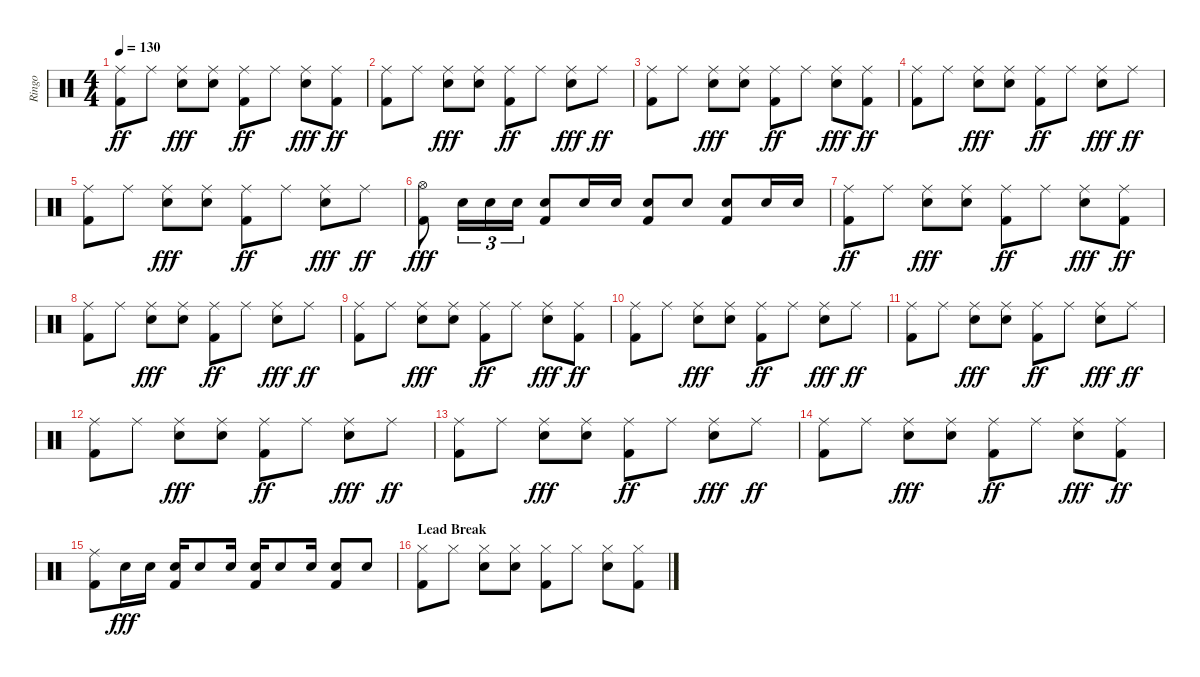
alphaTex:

\track ("Ringo" "Ringo") {instrument percussion}
\staff {score}
\articulation defaults
\ts (4 4)
\tempo 130
\clef neutral
\ks c
("Ride (middle)" "Kick (hit) 2").8{dy ff} "Ride (middle)".8 ("Ride (middle)" "Electric Snare (hit)").8{dy fff} ("Ride (middle)" "Electric Snare (hit)").8 ("Ride (middle)" "Kick (hit) 2").8{dy ff} "Ride (middle)".8 ("Ride (middle)" "Electric Snare (hit)").8{dy fff} ("Ride (middle)" "Kick (hit) 2").8{dy ff} |
("Ride (middle)" "Kick (hit) 2").8 "Ride (middle)".8 ("Ride (middle)" "Electric Snare (hit)").8{dy fff} ("Ride (middle)" "Electric Snare (hit)").8 ("Ride (middle)" "Kick (hit) 2").8{dy ff} "Ride (middle)".8 ("Ride (middle)" "Electric Snare (hit)").8{dy fff} "Ride (middle)".8{dy ff} |
("Ride (middle)" "Kick (hit) 2").8 "Ride (middle)".8 ("Ride (middle)" "Electric Snare (hit)").8{dy fff} ("Ride (middle)" "Electric Snare (hit)").8 ("Ride (middle)" "Kick (hit) 2").8{dy ff} "Ride (middle)".8 ("Ride (middle)" "Electric Snare (hit)").8{dy fff} ("Ride (middle)" "Kick (hit) 2").8{dy ff} |
("Ride (middle)" "Kick (hit) 2").8 "Ride (middle)".8 ("Ride (middle)" "Electric Snare (hit)").8{dy fff} ("Ride (middle)" "Electric Snare (hit)").8 ("Ride (middle)" "Kick (hit) 2").8{dy ff} "Ride (middle)".8 ("Ride (middle)" "Electric Snare (hit)").8{dy fff} "Ride (middle)".8{dy ff} |
("Ride (middle)" "Kick (hit) 2").8 "Ride (middle)".8 ("Ride (middle)" "Electric Snare (hit)").8{dy fff} ("Ride (middle)" "Electric Snare (hit)").8 ("Ride (middle)" "Kick (hit) 2").8{dy ff} "Ride (middle)".8 ("Ride (middle)" "Electric Snare (hit)").8{dy fff} "Ride (middle)".8{dy ff} |
("Hi-Hat (open)" "Kick (hit) 2").8{dy fff} "Electric Snare (hit)".16{tu (3 2)} "Electric Snare (hit)".16{tu (3 2)} "Electric Snare (hit)".16{tu (3 2)} ("Electric Snare (hit)" "Kick (hit) 2").8 "Electric Snare (hit)".16 "Electric Snare (hit)".16 ("Electric Snare (hit)" "Kick (hit) 2").8 "Electric Snare (hit)".8 ("Electric Snare (hit)" "Kick (hit) 2").8 "Electric Snare (hit)".16 "Electric Snare (hit)".16 |
("Ride (middle)" "Kick (hit) 2").8{dy ff} "Ride (middle)".8 ("Ride (middle)" "Electric Snare (hit)").8{dy fff} ("Ride (middle)" "Electric Snare (hit)").8 ("Ride (middle)" "Kick (hit) 2").8{dy ff} "Ride (middle)".8 ("Ride (middle)" "Electric Snare (hit)").8{dy fff} ("Ride (middle)" "Kick (hit) 2").8{dy ff} |
("Ride (middle)" "Kick (hit) 2").8 "Ride (middle)".8 ("Ride (middle)" "Electric Snare (hit)").8{dy fff} ("Ride (middle)" "Electric Snare (hit)").8 ("Ride (middle)" "Kick (hit) 2").8{dy ff} "Ride (middle)".8 ("Ride (middle)" "Electric Snare (hit)").8{dy fff} "Ride (middle)".8{dy ff} |
("Ride (middle)" "Kick (hit) 2").8 "Ride (middle)".8 ("Ride (middle)" "Electric Snare (hit)").8{dy fff} ("Ride (middle)" "Electric Snare (hit)").8 ("Ride (middle)" "Kick (hit) 2").8{dy ff} "Ride (middle)".8 ("Ride (middle)" "Electric Snare (hit)").8{dy fff} ("Ride (middle)" "Kick (hit) 2").8{dy ff} |
("Ride (middle)" "Kick (hit) 2").8 "Ride (middle)".8 ("Ride (middle)" "Electric Snare (hit)").8{dy fff} ("Ride (middle)" "Electric Snare (hit)").8 ("Ride (middle)" "Kick (hit) 2").8{dy ff} "Ride (middle)".8 ("Ride (middle)" "Electric Snare (hit)").8{dy fff} "Ride (middle)".8{dy ff} |
("Ride (middle)" "Kick (hit) 2").8 "Ride (middle)".8 ("Ride (middle)" "Electric Snare (hit)").8{dy fff} ("Ride (middle)" "Electric Snare (hit)").8 ("Ride (middle)" "Kick (hit) 2").8{dy ff} "Ride (middle)".8 ("Ride (middle)" "Electric Snare (hit)").8{dy fff} "Ride (middle)".8{dy ff} |
("Ride (middle)" "Kick (hit) 2").8 "Ride (middle)".8 ("Ride (middle)" "Electric Snare (hit)").8{dy fff} ("Ride (middle)" "Electric Snare (hit)").8 ("Ride (middle)" "Kick (hit) 2").8{dy ff} "Ride (middle)".8 ("Ride (middle)" "Electric Snare (hit)").8{dy fff} "Ride (middle)".8{dy ff} |
("Ride (middle)" "Kick (hit) 2").8 "Ride (middle)".8 ("Ride (middle)" "Electric Snare (hit)").8{dy fff} ("Ride (middle)" "Electric Snare (hit)").8 ("Ride (middle)" "Kick (hit) 2").8{dy ff} "Ride (middle)".8 ("Ride (middle)" "Electric Snare (hit)").8{dy fff} "Ride (middle)".8{dy ff} |
("Ride (middle)" "Kick (hit) 2").8 "Ride (middle)".8 ("Ride (middle)" "Electric Snare (hit)").8{dy fff} ("Ride (middle)" "Electric Snare (hit)").8 ("Ride (middle)" "Kick (hit) 2").8{dy ff} "Ride (middle)".8 ("Ride (middle)" "Electric Snare (hit)").8{dy fff} ("Ride (middle)" "Kick (hit) 2").8{dy ff} |
("Ride (middle)" "Kick (hit) 2").8 "Electric Snare (hit)".16{dy fff} "Electric Snare (hit)".16 ("Electric Snare (hit)" "Kick (hit) 2").16 "Electric Snare (hit)".8 "Electric Snare (hit)".16 ("Electric Snare (hit)" "Kick (hit) 2").16 "Electric Snare (hit)".8 "Electric Snare (hit)".16 ("Electric Snare (hit)" "Kick (hit) 2").8 "Electric Snare (hit)".8 |
\section ("" "Lead Break")
("Hi-Hat (closed)" "Kick (hit) 2").8 "Hi-Hat (closed)".8 ("Hi-Hat (closed)" "Electric Snare (hit)").8 ("Hi-Hat (closed)" "Electric Snare (hit)").8 ("Hi-Hat (closed)" "Kick (hit) 2").8 "Hi-Hat (closed)".8 ("Hi-Hat (closed)" "Electric Snare (hit)").8 ("Hi-Hat (closed)" "Kick (hit) 2").8
